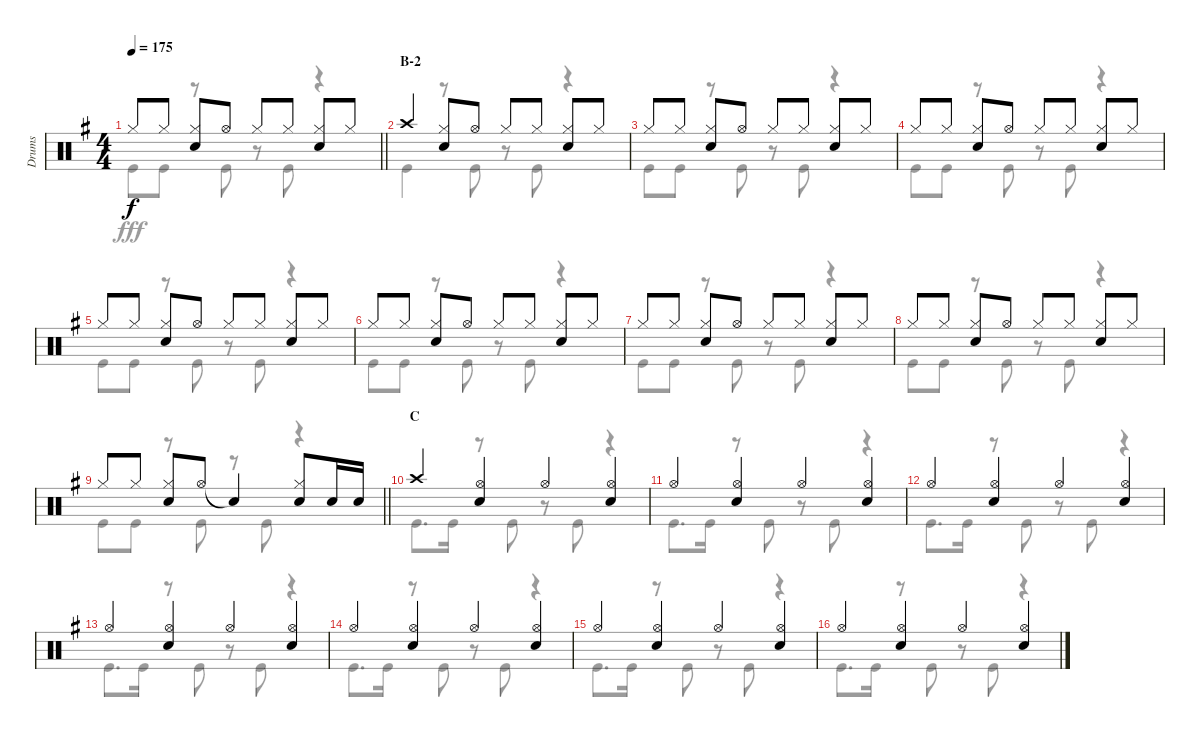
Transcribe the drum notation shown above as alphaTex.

\track ("Drums" "Drums") {instrument percussion}
\staff {score}
\articulation defaults
\voice
\ts (4 4)
\tempo 175
\clef neutral
\barLineRight lightlight
\ks g "Hi-Hat (closed)".8{dy f} "Hi-Hat (closed)".8
("Hi-Hat (closed)" "Snare (hit) 2").8 "Hi-Hat (open)".8 "Hi-Hat (closed)".8 "Hi-Hat (closed)".8 ("Hi-Hat (closed)" "Snare (hit) 2").8 "Hi-Hat (closed)".8 |
\section ("" "B-2")
"Crash high (hit)".4 ("Hi-Hat (closed)" "Snare (hit) 2").8 "Hi-Hat (open)".8 "Hi-Hat (closed)".8 "Hi-Hat (closed)".8 ("Hi-Hat (closed)" "Snare (hit) 2").8 "Hi-Hat (closed)".8 |
"Hi-Hat (closed)".8 "Hi-Hat (closed)".8 ("Hi-Hat (closed)" "Snare (hit) 2").8 "Hi-Hat (open)".8 "Hi-Hat (closed)".8 "Hi-Hat (closed)".8 ("Hi-Hat (closed)" "Snare (hit) 2").8 "Hi-Hat (closed)".8 |
"Hi-Hat (closed)".8 "Hi-Hat (closed)".8 ("Hi-Hat (closed)" "Snare (hit) 2").8 "Hi-Hat (open)".8 "Hi-Hat (closed)".8 "Hi-Hat (closed)".8 ("Hi-Hat (closed)" "Snare (hit) 2").8 "Hi-Hat (closed)".8 |
"Hi-Hat (closed)".8 "Hi-Hat (closed)".8 ("Hi-Hat (closed)" "Snare (hit) 2").8 "Hi-Hat (open)".8 "Hi-Hat (closed)".8 "Hi-Hat (closed)".8 ("Hi-Hat (closed)" "Snare (hit) 2").8 "Hi-Hat (closed)".8 |
"Hi-Hat (closed)".8 "Hi-Hat (closed)".8 ("Hi-Hat (closed)" "Snare (hit) 2").8 "Hi-Hat (open)".8 "Hi-Hat (closed)".8 "Hi-Hat (closed)".8 ("Hi-Hat (closed)" "Snare (hit) 2").8 "Hi-Hat (closed)".8 |
"Hi-Hat (closed)".8 "Hi-Hat (closed)".8 ("Hi-Hat (closed)" "Snare (hit) 2").8 "Hi-Hat (open)".8 "Hi-Hat (closed)".8 "Hi-Hat (closed)".8 ("Hi-Hat (closed)" "Snare (hit) 2").8 "Hi-Hat (closed)".8 |
"Hi-Hat (closed)".8 "Hi-Hat (closed)".8 ("Hi-Hat (closed)" "Snare (hit) 2").8 "Hi-Hat (open)".8 "Hi-Hat (closed)".8 "Hi-Hat (closed)".8 ("Hi-Hat (closed)" "Snare (hit) 2").8 "Hi-Hat (closed)".8 |
\barLineRight lightlight "Hi-Hat (closed)".8 "Hi-Hat (closed)".8
("Hi-Hat (closed)" "Snare (hit) 2").8 "Hi-Hat (open)".8 "Snare (hit)"{t}.4 ("Hi-Hat (closed)" "Snare (hit) 2").8 "Snare (hit) 2".16 "Snare (hit) 2".16 |
\section ("" "C")
"Crash high (hit)".4 ("Hi-Hat (open)" "Snare (hit) 2").4 "Hi-Hat (open)".4 ("Hi-Hat (open)" "Snare (hit) 2").4 |
"Hi-Hat (open)".4 ("Hi-Hat (open)" "Snare (hit) 2").4 "Hi-Hat (open)".4 ("Hi-Hat (open)" "Snare (hit) 2").4 |
"Hi-Hat (open)".4 ("Hi-Hat (open)" "Snare (hit) 2").4 "Hi-Hat (open)".4 ("Hi-Hat (open)" "Snare (hit) 2").4 |
"Hi-Hat (open)".4 ("Hi-Hat (open)" "Snare (hit) 2").4 "Hi-Hat (open)".4 ("Hi-Hat (open)" "Snare (hit) 2").4 |
"Hi-Hat (open)".4 ("Hi-Hat (open)" "Snare (hit) 2").4 "Hi-Hat (open)".4 ("Hi-Hat (open)" "Snare (hit) 2").4 |
"Hi-Hat (open)".4 ("Hi-Hat (open)" "Snare (hit) 2").4 "Hi-Hat (open)".4 ("Hi-Hat (open)" "Snare (hit) 2").4 |
"Hi-Hat (open)".4 ("Hi-Hat (open)" "Snare (hit) 2").4 "Hi-Hat (open)".4 ("Hi-Hat (open)" "Snare (hit) 2").4
\voice
\clef neutral
\ottava regular
\simile none
\barLineRight lightlight
\ks g "Kick (hit)".8{dy fff} "Kick (hit)".8
r.8 "Kick (hit)".8 r.8 "Kick (hit)".8 r.4 |
"Kick (hit)".4 r.8 "Kick (hit)".8 r.8 "Kick (hit)".8 r.4 |
"Kick (hit)".8 "Kick (hit)".8 r.8 "Kick (hit)".8 r.8 "Kick (hit)".8 r.4 |
"Kick (hit)".8 "Kick (hit)".8 r.8 "Kick (hit)".8 r.8 "Kick (hit)".8 r.4 |
"Kick (hit)".8 "Kick (hit)".8 r.8 "Kick (hit)".8 r.8 "Kick (hit)".8 r.4 |
"Kick (hit)".8 "Kick (hit)".8 r.8 "Kick (hit)".8 r.8 "Kick (hit)".8 r.4 |
"Kick (hit)".8 "Kick (hit)".8 r.8 "Kick (hit)".8 r.8 "Kick (hit)".8 r.4 |
"Kick (hit)".8 "Kick (hit)".8 r.8 "Kick (hit)".8 r.8 "Kick (hit)".8 r.4 |
\barLineRight lightlight "Kick (hit)".8 "Kick (hit)".8
r.8 "Kick (hit)".8 r.8 "Kick (hit)".8 r.4 |
"Kick (hit)".8{d} "Kick (hit)".16 r.8 "Kick (hit)".8 r.8 "Kick (hit)".8 r.4 |
"Kick (hit)".8{d} "Kick (hit)".16 r.8 "Kick (hit)".8 r.8 "Kick (hit)".8 r.4 |
"Kick (hit)".8{d} "Kick (hit)".16 r.8 "Kick (hit)".8 r.8 "Kick (hit)".8 r.4 |
"Kick (hit)".8{d} "Kick (hit)".16 r.8 "Kick (hit)".8 r.8 "Kick (hit)".8 r.4 |
"Kick (hit)".8{d} "Kick (hit)".16 r.8 "Kick (hit)".8 r.8 "Kick (hit)".8 r.4 |
"Kick (hit)".8{d} "Kick (hit)".16 r.8 "Kick (hit)".8 r.8 "Kick (hit)".8 r.4 |
"Kick (hit)".8{d} "Kick (hit)".16 r.8 "Kick (hit)".8 r.8 "Kick (hit)".8 r.4
